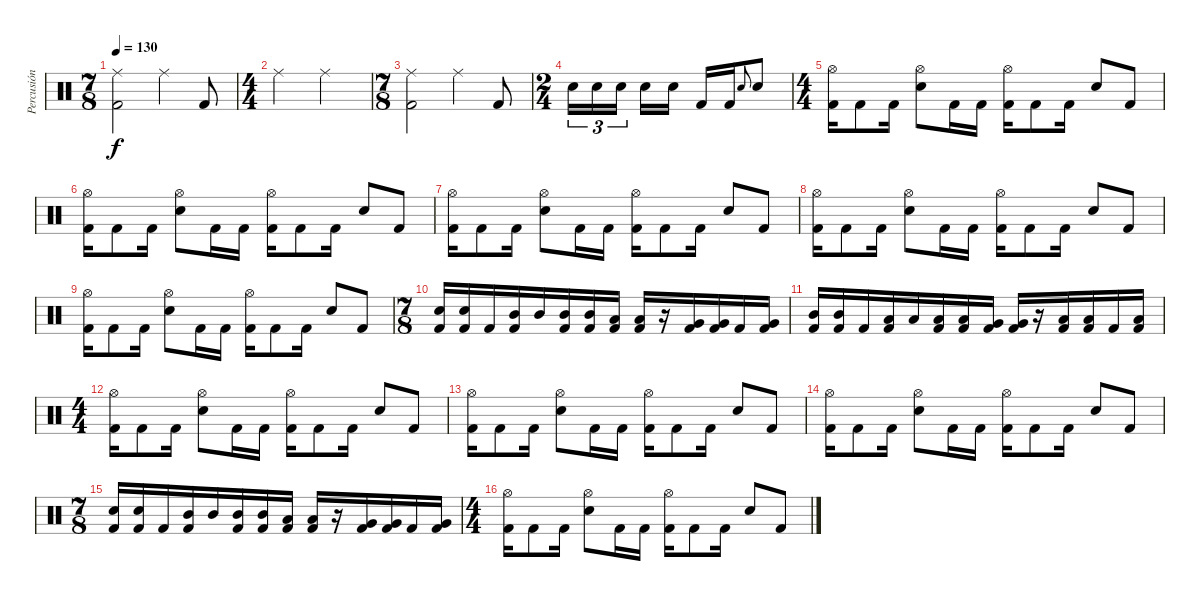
\track ("Percusión" "Percusión") {instrument percussion}
\staff {score}
\articulation defaults
\ts (7 8)
\tempo 130
\clef neutral
\ks c
("Ride (middle)" "Kick (hit) 2").2{dy f} "Ride (middle)".4 "Kick (hit) 2".8 |
\ts (4 4)
"Ride (middle)".2 "Ride (middle)".2 |
\ts (7 8)
("Ride (middle)" "Kick (hit) 2").2 "Ride (middle)".4 "Kick (hit) 2".8 |
\ts (2 4)
"Snare (hit) 2".16{tu (3 2)} "Snare (hit) 2".16{tu (3 2)} "Snare (hit) 2".16{tu (3 2) beam splitsecondary} "Snare (hit) 2".16 "Snare (hit) 2".16 "Kick (hit) 2".16 "Kick (hit) 2".16 "Snare (hit) 2".8{gr onbeat} "Snare (hit) 2".8 |
\ts (4 4)
("Hi-Hat (open)" "Kick (hit) 2").16 "Kick (hit) 2".8 "Kick (hit) 2".16 ("Hi-Hat (open)" "Snare (hit) 2").8 "Kick (hit) 2".16 "Kick (hit) 2".16 ("Hi-Hat (open)" "Kick (hit) 2").16 "Kick (hit) 2".8 "Kick (hit) 2".16 "Snare (hit) 2".8 "Kick (hit) 2".8 |
("Hi-Hat (open)" "Kick (hit) 2").16 "Kick (hit) 2".8 "Kick (hit) 2".16 ("Hi-Hat (open)" "Snare (hit) 2").8 "Kick (hit) 2".16 "Kick (hit) 2".16 ("Hi-Hat (open)" "Kick (hit) 2").16 "Kick (hit) 2".8 "Kick (hit) 2".16 "Snare (hit) 2".8 "Kick (hit) 2".8 |
("Hi-Hat (open)" "Kick (hit) 2").16 "Kick (hit) 2".8 "Kick (hit) 2".16 ("Hi-Hat (open)" "Snare (hit) 2").8 "Kick (hit) 2".16 "Kick (hit) 2".16 ("Hi-Hat (open)" "Kick (hit) 2").16 "Kick (hit) 2".8 "Kick (hit) 2".16 "Snare (hit) 2".8 "Kick (hit) 2".8 |
("Hi-Hat (open)" "Kick (hit) 2").16 "Kick (hit) 2".8 "Kick (hit) 2".16 ("Hi-Hat (open)" "Snare (hit) 2").8 "Kick (hit) 2".16 "Kick (hit) 2".16 ("Hi-Hat (open)" "Kick (hit) 2").16 "Kick (hit) 2".8 "Kick (hit) 2".16 "Snare (hit) 2".8 "Kick (hit) 2".8 |
("Hi-Hat (open)" "Kick (hit) 2").16 "Kick (hit) 2".8 "Kick (hit) 2".16 ("Hi-Hat (open)" "Snare (hit) 2").8 "Kick (hit) 2".16 "Kick (hit) 2".16 ("Hi-Hat (open)" "Kick (hit) 2").16 "Kick (hit) 2".8 "Kick (hit) 2".16 "Snare (hit) 2".8 "Kick (hit) 2".8 |
\ts (7 8)
("Snare (hit) 2" "Kick (hit) 2").16 ("Snare (hit) 2" "Kick (hit) 2").16 "Kick (hit) 2".16 ("Mid Tom (hit)" "Kick (hit) 2").16 "Mid Tom (hit)".16 ("Mid Tom (hit)" "Kick (hit) 2").16 ("Mid Tom (hit)" "Kick (hit) 2").16 ("Low Tom (hit)" "Kick (hit) 2").16 ("Low Tom (hit)" "Kick (hit) 2").16 r.16 ("Very Low Tom (hit)" "Kick (hit) 2").16 ("Very Low Tom (hit)" "Kick (hit) 2").16 "Kick (hit) 2".16 ("Very Low Tom (hit)" "Kick (hit) 2").16 |
("Mid Tom (hit)" "Kick (hit) 2").16 ("Mid Tom (hit)" "Kick (hit) 2").16 "Kick (hit) 2".16 ("Low Tom (hit)" "Kick (hit) 2").16 "Low Tom (hit)".16 ("Low Tom (hit)" "Kick (hit) 2").16 ("Low Tom (hit)" "Kick (hit) 2").16 ("Very Low Tom (hit)" "Kick (hit) 2").16 ("Very Low Tom (hit)" "Kick (hit) 2").16 r.16 ("Low Floor Tom (hit)" "Kick (hit) 2").16 ("Low Floor Tom (hit)" "Kick (hit) 2").16 "Kick (hit) 2".16 ("Low Floor Tom (hit)" "Kick (hit) 2").16 |
\ts (4 4)
("Hi-Hat (open)" "Kick (hit) 2").16 "Kick (hit) 2".8 "Kick (hit) 2".16 ("Hi-Hat (open)" "Snare (hit) 2").8 "Kick (hit) 2".16 "Kick (hit) 2".16 ("Hi-Hat (open)" "Kick (hit) 2").16 "Kick (hit) 2".8 "Kick (hit) 2".16 "Snare (hit) 2".8 "Kick (hit) 2".8 |
("Hi-Hat (open)" "Kick (hit) 2").16 "Kick (hit) 2".8 "Kick (hit) 2".16 ("Hi-Hat (open)" "Snare (hit) 2").8 "Kick (hit) 2".16 "Kick (hit) 2".16 ("Hi-Hat (open)" "Kick (hit) 2").16 "Kick (hit) 2".8 "Kick (hit) 2".16 "Snare (hit) 2".8 "Kick (hit) 2".8 |
("Hi-Hat (open)" "Kick (hit) 2").16 "Kick (hit) 2".8 "Kick (hit) 2".16 ("Hi-Hat (open)" "Snare (hit) 2").8 "Kick (hit) 2".16 "Kick (hit) 2".16 ("Hi-Hat (open)" "Kick (hit) 2").16 "Kick (hit) 2".8 "Kick (hit) 2".16 "Snare (hit) 2".8 "Kick (hit) 2".8 |
\ts (7 8)
("Snare (hit) 2" "Kick (hit) 2").16 ("Snare (hit) 2" "Kick (hit) 2").16 "Kick (hit) 2".16 ("Mid Tom (hit)" "Kick (hit) 2").16 "Mid Tom (hit)".16 ("Mid Tom (hit)" "Kick (hit) 2").16 ("Mid Tom (hit)" "Kick (hit) 2").16 ("Low Tom (hit)" "Kick (hit) 2").16 ("Low Tom (hit)" "Kick (hit) 2").16 r.16 ("Very Low Tom (hit)" "Kick (hit) 2").16 ("Very Low Tom (hit)" "Kick (hit) 2").16 "Kick (hit) 2".16 ("Very Low Tom (hit)" "Kick (hit) 2").16 |
\ts (4 4)
("Hi-Hat (open)" "Kick (hit) 2").16 "Kick (hit) 2".8 "Kick (hit) 2".16 ("Hi-Hat (open)" "Snare (hit) 2").8 "Kick (hit) 2".16 "Kick (hit) 2".16 ("Hi-Hat (open)" "Kick (hit) 2").16 "Kick (hit) 2".8 "Kick (hit) 2".16 "Snare (hit) 2".8 "Kick (hit) 2".8
